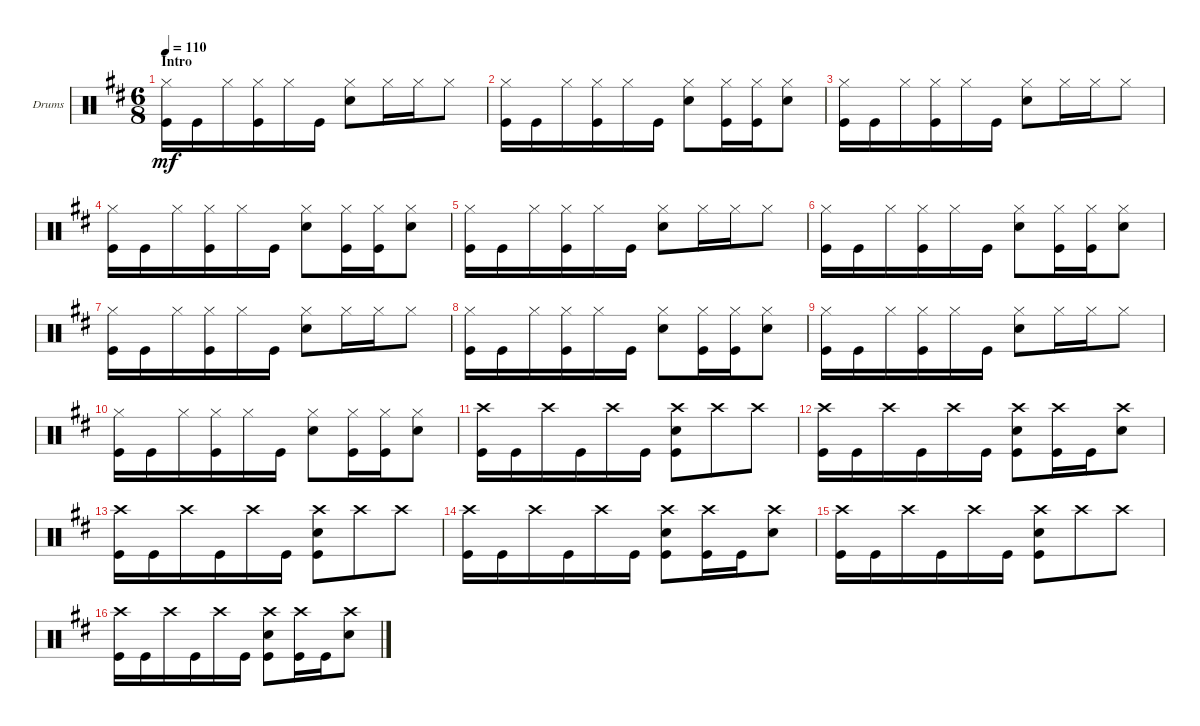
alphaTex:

\defaultSystemsLayout 4
\bracketExtendMode groupsimilarinstruments
\firstSystemTrackNameOrientation horizontal
\otherSystemsTrackNameOrientation horizontal
\track ("Drumkit" "Drums") {instrument percussion}
\staff {score}
\articulation defaults
\ts (6 8)
\section ("" "Intro")
\tempo 110
\clef neutral
\ks d
("Kick (hit)" "Hi-Hat (closed)").16{dy mf} "Kick (hit)".16 "Hi-Hat (closed)".16 ("Kick (hit)" "Hi-Hat (closed)").16 "Hi-Hat (closed)".16 "Kick (hit)".16 ("Snare (hit) 2" "Hi-Hat (closed)").8 "Hi-Hat (closed)".16 "Hi-Hat (closed)".16 "Hi-Hat (closed)".8 |
("Kick (hit)" "Hi-Hat (closed)").16 "Kick (hit)".16 "Hi-Hat (closed)".16 ("Kick (hit)" "Hi-Hat (closed)").16 "Hi-Hat (closed)".16 "Kick (hit)".16 ("Snare (hit) 2" "Hi-Hat (closed)").8 ("Kick (hit)" "Hi-Hat (closed)").16 ("Kick (hit)" "Hi-Hat (closed)").16 ("Snare (hit) 2" "Hi-Hat (closed)").8 |
("Kick (hit)" "Hi-Hat (closed)").16 "Kick (hit)".16 "Hi-Hat (closed)".16 ("Kick (hit)" "Hi-Hat (closed)").16 "Hi-Hat (closed)".16 "Kick (hit)".16 ("Snare (hit) 2" "Hi-Hat (closed)").8 "Hi-Hat (closed)".16 "Hi-Hat (closed)".16 "Hi-Hat (closed)".8 |
("Kick (hit)" "Hi-Hat (closed)").16 "Kick (hit)".16 "Hi-Hat (closed)".16 ("Kick (hit)" "Hi-Hat (closed)").16 "Hi-Hat (closed)".16 "Kick (hit)".16 ("Snare (hit) 2" "Hi-Hat (closed)").8 ("Kick (hit)" "Hi-Hat (closed)").16 ("Kick (hit)" "Hi-Hat (closed)").16 ("Snare (hit) 2" "Hi-Hat (closed)").8 |
("Kick (hit)" "Hi-Hat (closed)").16 "Kick (hit)".16 "Hi-Hat (closed)".16 ("Kick (hit)" "Hi-Hat (closed)").16 "Hi-Hat (closed)".16 "Kick (hit)".16 ("Snare (hit) 2" "Hi-Hat (closed)").8 "Hi-Hat (closed)".16 "Hi-Hat (closed)".16 "Hi-Hat (closed)".8 |
("Kick (hit)" "Hi-Hat (closed)").16 "Kick (hit)".16 "Hi-Hat (closed)".16 ("Kick (hit)" "Hi-Hat (closed)").16 "Hi-Hat (closed)".16 "Kick (hit)".16 ("Snare (hit) 2" "Hi-Hat (closed)").8 ("Kick (hit)" "Hi-Hat (closed)").16 ("Kick (hit)" "Hi-Hat (closed)").16 ("Snare (hit) 2" "Hi-Hat (closed)").8 |
("Kick (hit)" "Hi-Hat (closed)").16 "Kick (hit)".16 "Hi-Hat (closed)".16 ("Kick (hit)" "Hi-Hat (closed)").16 "Hi-Hat (closed)".16 "Kick (hit)".16 ("Snare (hit) 2" "Hi-Hat (closed)").8 "Hi-Hat (closed)".16 "Hi-Hat (closed)".16 "Hi-Hat (closed)".8 |
("Kick (hit)" "Hi-Hat (closed)").16 "Kick (hit)".16 "Hi-Hat (closed)".16 ("Kick (hit)" "Hi-Hat (closed)").16 "Hi-Hat (closed)".16 "Kick (hit)".16 ("Snare (hit) 2" "Hi-Hat (closed)").8 ("Kick (hit)" "Hi-Hat (closed)").16 ("Kick (hit)" "Hi-Hat (closed)").16 ("Snare (hit) 2" "Hi-Hat (closed)").8 |
("Kick (hit)" "Hi-Hat (closed)").16 "Kick (hit)".16 "Hi-Hat (closed)".16 ("Kick (hit)" "Hi-Hat (closed)").16 "Hi-Hat (closed)".16 "Kick (hit)".16 ("Snare (hit) 2" "Hi-Hat (closed)").8 "Hi-Hat (closed)".16 "Hi-Hat (closed)".16 "Hi-Hat (closed)".8 |
("Kick (hit)" "Hi-Hat (closed)").16 "Kick (hit)".16 "Hi-Hat (closed)".16 ("Kick (hit)" "Hi-Hat (closed)").16 "Hi-Hat (closed)".16 "Kick (hit)".16 ("Snare (hit) 2" "Hi-Hat (closed)").8 ("Kick (hit)" "Hi-Hat (closed)").16 ("Kick (hit)" "Hi-Hat (closed)").16 ("Snare (hit) 2" "Hi-Hat (closed)").8 |
\scale
0.241379 ("Kick (hit)" "Crash high (hit)").16 "Kick (hit)".16 "Crash high (hit)".16 "Kick (hit)".16 "Crash high (hit)".16 "Kick (hit)".16 ("Kick (hit)" "Snare (hit) 2" "Crash high (hit)").8 "Crash high (hit)".8 "Crash high (hit)".8 |
\scale
0.241379 ("Kick (hit)" "Crash high (hit)").16 "Kick (hit)".16 "Crash high (hit)".16 "Kick (hit)".16 "Crash high (hit)".16 "Kick (hit)".16 ("Kick (hit)" "Snare (hit) 2" "Crash high (hit)").8 ("Kick (hit)" "Crash high (hit)").16 "Kick (hit)".16 ("Snare (hit) 2" "Crash high (hit)").8 |
("Kick (hit)" "Crash high (hit)").16 "Kick (hit)".16 "Crash high (hit)".16 "Kick (hit)".16 "Crash high (hit)".16 "Kick (hit)".16 ("Kick (hit)" "Snare (hit) 2" "Crash high (hit)").8 "Crash high (hit)".8 "Crash high (hit)".8 |
("Kick (hit)" "Crash high (hit)").16 "Kick (hit)".16 "Crash high (hit)".16 "Kick (hit)".16 "Crash high (hit)".16 "Kick (hit)".16 ("Kick (hit)" "Snare (hit) 2" "Crash high (hit)").8 ("Kick (hit)" "Crash high (hit)").16 "Kick (hit)".16 ("Snare (hit) 2" "Crash high (hit)").8 |
("Kick (hit)" "Crash high (hit)").16 "Kick (hit)".16 "Crash high (hit)".16 "Kick (hit)".16 "Crash high (hit)".16 "Kick (hit)".16 ("Kick (hit)" "Snare (hit) 2" "Crash high (hit)").8 "Crash high (hit)".8 "Crash high (hit)".8 |
("Kick (hit)" "Crash high (hit)").16 "Kick (hit)".16 "Crash high (hit)".16 "Kick (hit)".16 "Crash high (hit)".16 "Kick (hit)".16 ("Kick (hit)" "Snare (hit) 2" "Crash high (hit)").8 ("Kick (hit)" "Crash high (hit)").16 "Kick (hit)".16 ("Snare (hit) 2" "Crash high (hit)").8
